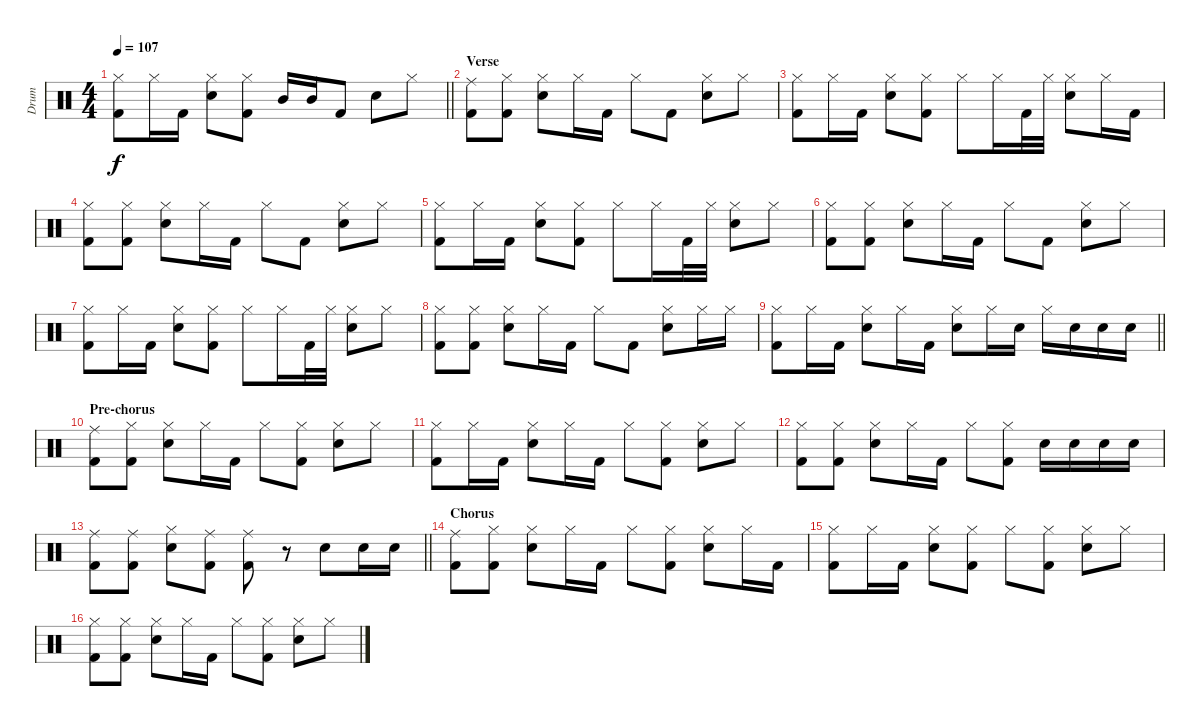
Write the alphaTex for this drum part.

\track ("Drum" "Drum") {instrument percussion}
\staff {score}
\articulation defaults
\ts (4 4)
\tempo 107
\clef neutral
\barLineRight lightlight
\ks c
("Hi-Hat (closed)" "Kick (hit) 2").8{dy f} "Hi-Hat (closed)".16 "Kick (hit) 2".16 ("Hi-Hat (closed)" "Snare (hit) 2").8 ("Hi-Hat (closed)" "Kick (hit) 2").8 "Mid Tom (hit)".16 "Mid Tom (hit)".16 "Kick (hit) 2".8 "Snare (hit) 2".8 "Hi-Hat (closed)".8 |
\section ("" "Verse")
("Ride (middle)" "Kick (hit) 2").8 ("Hi-Hat (closed)" "Kick (hit) 2").8 ("Hi-Hat (closed)" "Snare (hit) 2").8 "Hi-Hat (closed)".16 "Kick (hit) 2".16 "Hi-Hat (closed)".8 "Kick (hit) 2".8 ("Hi-Hat (closed)" "Snare (hit) 2").8 "Hi-Hat (closed)".8 |
("Hi-Hat (closed)" "Kick (hit) 2").8 "Hi-Hat (closed)".16 "Kick (hit) 2".16 ("Hi-Hat (closed)" "Snare (hit) 2").8 ("Hi-Hat (closed)" "Kick (hit) 2").8 "Hi-Hat (closed)".8 "Hi-Hat (closed)".16 "Kick (hit) 2".32 "Hi-Hat (closed)".32 ("Hi-Hat (closed)" "Snare (hit) 2").8 "Hi-Hat (closed)".16 "Kick (hit) 2".16 |
("Hi-Hat (closed)" "Kick (hit) 2").8 ("Hi-Hat (closed)" "Kick (hit) 2").8 ("Hi-Hat (closed)" "Snare (hit) 2").8 "Hi-Hat (closed)".16 "Kick (hit) 2".16 "Hi-Hat (closed)".8 "Kick (hit) 2".8 ("Hi-Hat (closed)" "Snare (hit) 2").8 "Hi-Hat (closed)".8 |
("Hi-Hat (closed)" "Kick (hit) 2").8 "Hi-Hat (closed)".16 "Kick (hit) 2".16 ("Hi-Hat (closed)" "Snare (hit) 2").8 ("Hi-Hat (closed)" "Kick (hit) 2").8 "Hi-Hat (closed)".8 "Hi-Hat (closed)".16 "Kick (hit) 2".32 "Hi-Hat (closed)".32 ("Hi-Hat (closed)" "Snare (hit) 2").8 "Hi-Hat (closed)".8 |
("Hi-Hat (closed)" "Kick (hit) 2").8 ("Hi-Hat (closed)" "Kick (hit) 2").8 ("Hi-Hat (closed)" "Snare (hit) 2").8 "Hi-Hat (closed)".16 "Kick (hit) 2".16 "Hi-Hat (closed)".8 "Kick (hit) 2".8 ("Hi-Hat (closed)" "Snare (hit) 2").8 "Hi-Hat (closed)".8 |
("Hi-Hat (closed)" "Kick (hit) 2").8 "Hi-Hat (closed)".16 "Kick (hit) 2".16 ("Hi-Hat (closed)" "Snare (hit) 2").8 ("Hi-Hat (closed)" "Kick (hit) 2").8 "Hi-Hat (closed)".8 "Hi-Hat (closed)".16 "Kick (hit) 2".32 "Hi-Hat (closed)".32 ("Hi-Hat (closed)" "Snare (hit) 2").8 "Hi-Hat (closed)".8 |
("Hi-Hat (closed)" "Kick (hit) 2").8 ("Hi-Hat (closed)" "Kick (hit) 2").8 ("Hi-Hat (closed)" "Snare (hit) 2").8 "Hi-Hat (closed)".16 "Kick (hit) 2".16 "Hi-Hat (closed)".8 "Kick (hit) 2".8 ("Hi-Hat (closed)" "Snare (hit) 2").8 "Hi-Hat (closed)".16 "Hi-Hat (closed)".16 |
\barLineRight lightlight
("Hi-Hat (closed)" "Kick (hit) 2").8 "Hi-Hat (closed)".16 "Kick (hit) 2".16 ("Hi-Hat (closed)" "Snare (hit) 2").8 "Hi-Hat (closed)".16 "Kick (hit) 2".16 ("Hi-Hat (closed)" "Snare (hit) 2").8 "Hi-Hat (closed)".16 "Snare (hit) 2".16 "Hi-Hat (closed)".16 "Snare (hit) 2".16 "Snare (hit) 2".16 "Snare (hit) 2".16 |
\section ("" "Pre-chorus")
("Ride (middle)" "Kick (hit) 2").8 ("Hi-Hat (closed)" "Kick (hit) 2").8 ("Hi-Hat (closed)" "Snare (hit) 2").8 "Hi-Hat (closed)".16 "Kick (hit) 2".16 "Hi-Hat (closed)".8 ("Hi-Hat (closed)" "Kick (hit) 2").8 ("Hi-Hat (closed)" "Snare (hit) 2").8 "Hi-Hat (closed)".8 |
("Hi-Hat (closed)" "Kick (hit) 2").8 "Hi-Hat (closed)".16 "Kick (hit) 2".16 ("Hi-Hat (closed)" "Snare (hit) 2").8 "Hi-Hat (closed)".16 "Kick (hit) 2".16 "Hi-Hat (closed)".8 ("Hi-Hat (closed)" "Kick (hit) 2").8 ("Hi-Hat (closed)" "Snare (hit) 2").8 "Hi-Hat (closed)".8 |
("Hi-Hat (closed)" "Kick (hit) 2").8 ("Hi-Hat (closed)" "Kick (hit) 2").8 ("Hi-Hat (closed)" "Snare (hit) 2").8 "Hi-Hat (closed)".16 "Kick (hit) 2".16 "Hi-Hat (closed)".8 ("Hi-Hat (closed)" "Kick (hit) 2").8 "Snare (hit) 2".16 "Snare (hit) 2".16 "Snare (hit) 2".16 "Snare (hit) 2".16 |
\barLineRight lightlight
("Ride (middle)" "Kick (hit) 2").8 ("Ride (middle)" "Kick (hit) 2").8 ("Hi-Hat (closed)" "Snare (hit) 2").8 ("Ride (middle)" "Kick (hit) 2").8 ("Ride (middle)" "Kick (hit) 2").8 r.8 "Snare (hit) 2".8 "Snare (hit) 2".16 "Snare (hit) 2".16 |
\section ("" "Chorus")
("Ride (middle)" "Kick (hit) 2").8 ("Hi-Hat (closed)" "Kick (hit) 2").8 ("Hi-Hat (closed)" "Snare (hit) 2").8 "Hi-Hat (closed)".16 "Kick (hit) 2".16 "Hi-Hat (closed)".8 ("Hi-Hat (closed)" "Kick (hit) 2").8 ("Hi-Hat (closed)" "Snare (hit) 2").8 "Hi-Hat (closed)".16 "Kick (hit) 2".16 |
("Hi-Hat (closed)" "Kick (hit) 2").8 "Hi-Hat (closed)".16 "Kick (hit) 2".16 ("Hi-Hat (closed)" "Snare (hit) 2").8 ("Hi-Hat (closed)" "Kick (hit) 2").8 "Hi-Hat (closed)".8 ("Hi-Hat (closed)" "Kick (hit) 2").8 ("Hi-Hat (closed)" "Snare (hit) 2").8 "Hi-Hat (closed)".8 |
("Hi-Hat (closed)" "Kick (hit) 2").8 ("Hi-Hat (closed)" "Kick (hit) 2").8 ("Hi-Hat (closed)" "Snare (hit) 2").8 "Hi-Hat (closed)".16 "Kick (hit) 2".16 "Hi-Hat (closed)".8 ("Hi-Hat (closed)" "Kick (hit) 2").8 ("Hi-Hat (closed)" "Snare (hit) 2").8 "Hi-Hat (closed)".8
